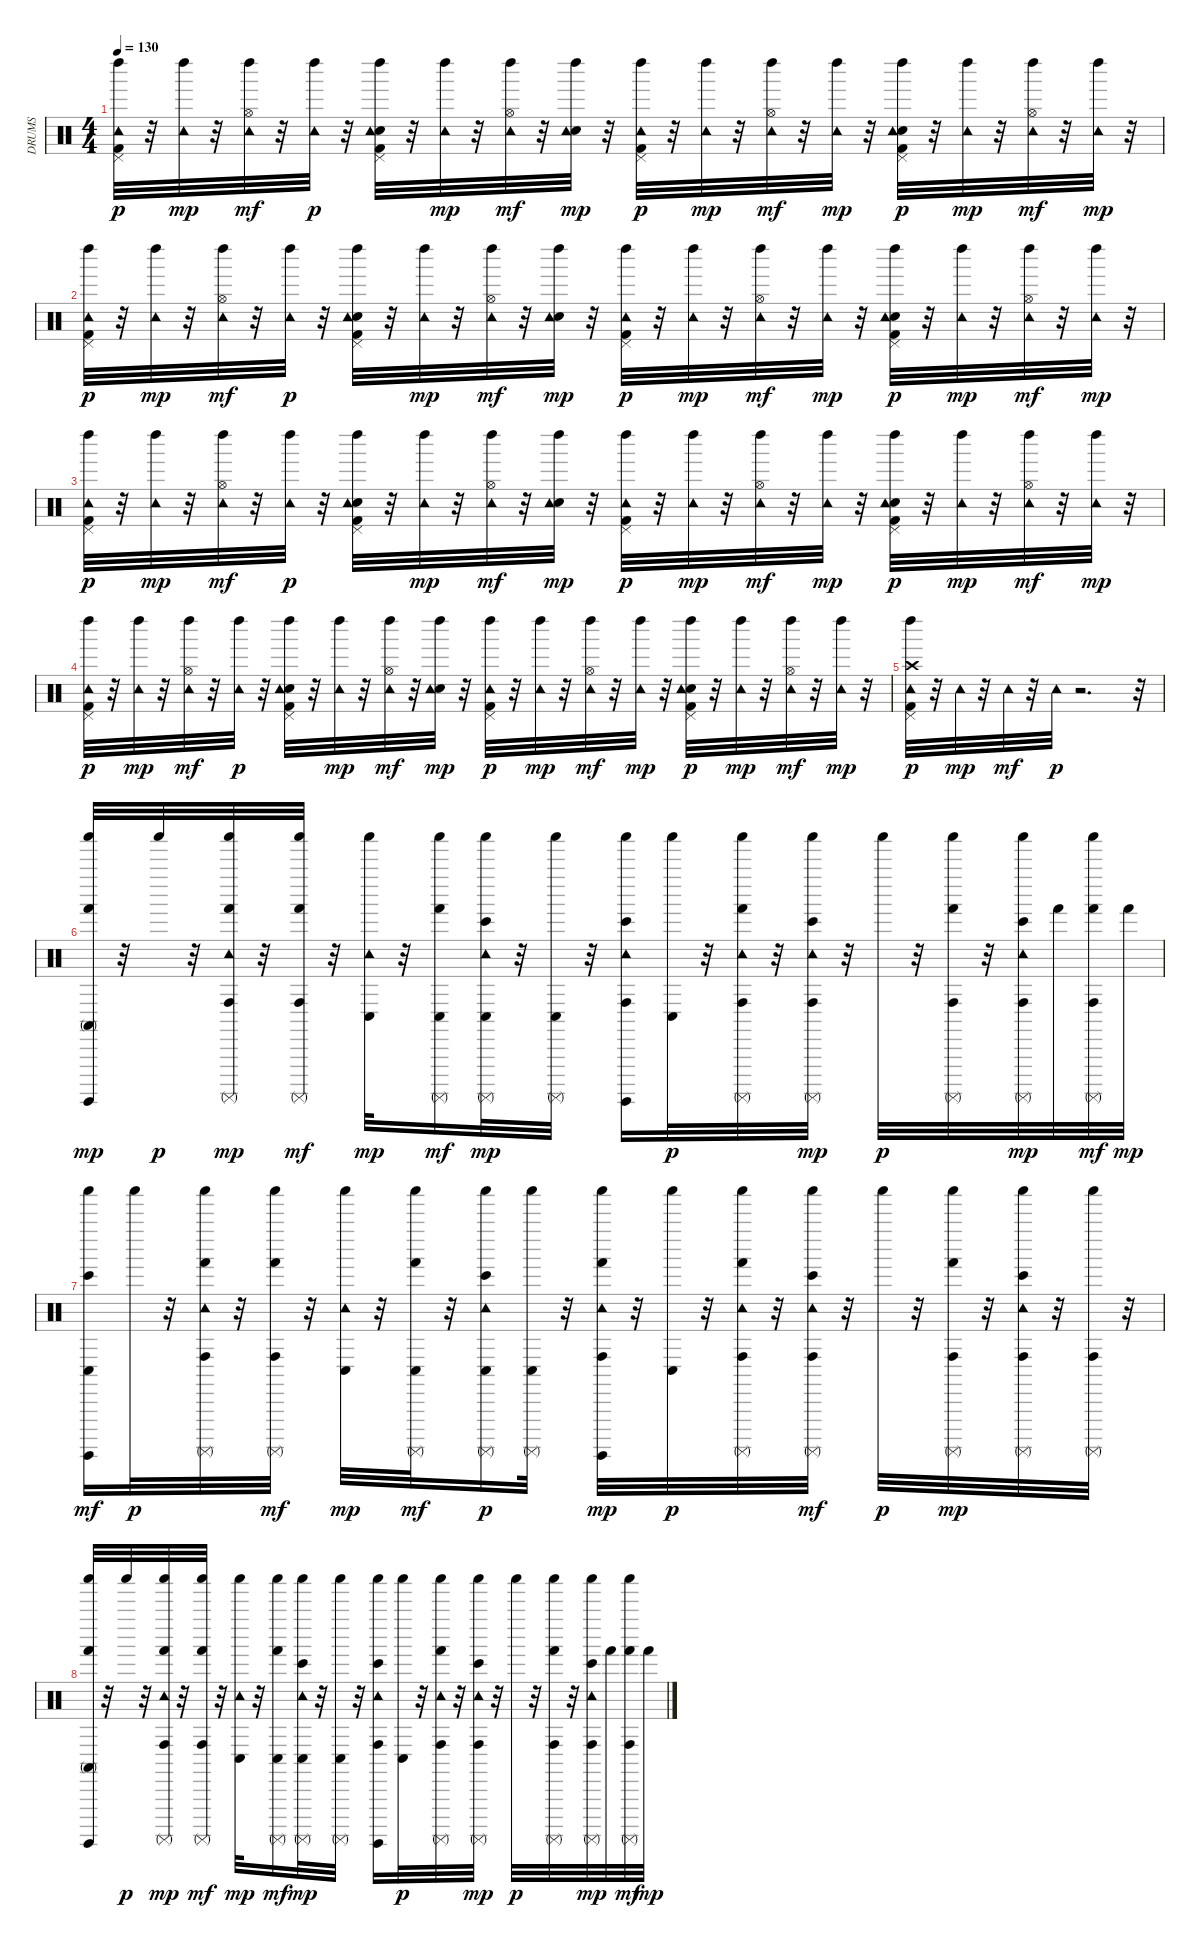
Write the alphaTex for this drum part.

\track ("DRUMS" "DRUMS") {instrument percussion}
\staff {score}
\articulation defaults
\ts (4 4)
\tempo 130
\clef neutral
\ks c
("Kick (hit) 2" "Pedal Hi-Hat (hit)" "Left Maraca (hit)" "Tambourine (hit)").32{dy p} r.32 ("Left Maraca (hit)" "Tambourine (hit)").32{dy mp} r.32 ("Hi-Hat (open)" "Left Maraca (hit)" "Tambourine (hit)").32{dy mf} r.32 ("Left Maraca (hit)" "Tambourine (hit)").32{dy p} r.32 ("Kick (hit) 2" "Electric Snare (hit)" "Pedal Hi-Hat (hit)" "Left Maraca (hit)" "Tambourine (hit)").32 r.32 ("Left Maraca (hit)" "Tambourine (hit)").32{dy mp} r.32 ("Hi-Hat (open)" "Left Maraca (hit)" "Tambourine (hit)").32{dy mf} r.32 ("Electric Snare (hit)" "Left Maraca (hit)" "Tambourine (hit)").32{dy mp} r.32 ("Kick (hit) 2" "Pedal Hi-Hat (hit)" "Left Maraca (hit)" "Tambourine (hit)").32{dy p} r.32 ("Left Maraca (hit)" "Tambourine (hit)").32{dy mp} r.32 ("Hi-Hat (open)" "Left Maraca (hit)" "Tambourine (hit)").32{dy mf} r.32 ("Left Maraca (hit)" "Tambourine (hit)").32{dy mp} r.32 ("Kick (hit) 2" "Electric Snare (hit)" "Pedal Hi-Hat (hit)" "Left Maraca (hit)" "Tambourine (hit)").32{dy p} r.32 ("Left Maraca (hit)" "Tambourine (hit)").32{dy mp} r.32 ("Hi-Hat (open)" "Left Maraca (hit)" "Tambourine (hit)").32{dy mf} r.32 ("Left Maraca (hit)" "Tambourine (hit)").32{dy mp} r.32 |
("Kick (hit) 2" "Pedal Hi-Hat (hit)" "Left Maraca (hit)" "Tambourine (hit)").32{dy p} r.32 ("Left Maraca (hit)" "Tambourine (hit)").32{dy mp} r.32 ("Hi-Hat (open)" "Left Maraca (hit)" "Tambourine (hit)").32{dy mf} r.32 ("Left Maraca (hit)" "Tambourine (hit)").32{dy p} r.32 ("Kick (hit) 2" "Electric Snare (hit)" "Pedal Hi-Hat (hit)" "Left Maraca (hit)" "Tambourine (hit)").32 r.32 ("Left Maraca (hit)" "Tambourine (hit)").32{dy mp} r.32 ("Hi-Hat (open)" "Left Maraca (hit)" "Tambourine (hit)").32{dy mf} r.32 ("Electric Snare (hit)" "Left Maraca (hit)" "Tambourine (hit)").32{dy mp} r.32 ("Kick (hit) 2" "Pedal Hi-Hat (hit)" "Left Maraca (hit)" "Tambourine (hit)").32{dy p} r.32 ("Left Maraca (hit)" "Tambourine (hit)").32{dy mp} r.32 ("Hi-Hat (open)" "Left Maraca (hit)" "Tambourine (hit)").32{dy mf} r.32 ("Left Maraca (hit)" "Tambourine (hit)").32{dy mp} r.32 ("Kick (hit) 2" "Electric Snare (hit)" "Pedal Hi-Hat (hit)" "Left Maraca (hit)" "Tambourine (hit)").32{dy p} r.32 ("Left Maraca (hit)" "Tambourine (hit)").32{dy mp} r.32 ("Hi-Hat (open)" "Left Maraca (hit)" "Tambourine (hit)").32{dy mf} r.32 ("Left Maraca (hit)" "Tambourine (hit)").32{dy mp} r.32 |
("Kick (hit) 2" "Pedal Hi-Hat (hit)" "Left Maraca (hit)" "Tambourine (hit)").32{dy p} r.32 ("Left Maraca (hit)" "Tambourine (hit)").32{dy mp} r.32 ("Hi-Hat (open)" "Left Maraca (hit)" "Tambourine (hit)").32{dy mf} r.32 ("Left Maraca (hit)" "Tambourine (hit)").32{dy p} r.32 ("Kick (hit) 2" "Electric Snare (hit)" "Pedal Hi-Hat (hit)" "Left Maraca (hit)" "Tambourine (hit)").32 r.32 ("Left Maraca (hit)" "Tambourine (hit)").32{dy mp} r.32 ("Hi-Hat (open)" "Left Maraca (hit)" "Tambourine (hit)").32{dy mf} r.32 ("Electric Snare (hit)" "Left Maraca (hit)" "Tambourine (hit)").32{dy mp} r.32 ("Kick (hit) 2" "Pedal Hi-Hat (hit)" "Left Maraca (hit)" "Tambourine (hit)").32{dy p} r.32 ("Left Maraca (hit)" "Tambourine (hit)").32{dy mp} r.32 ("Hi-Hat (open)" "Left Maraca (hit)" "Tambourine (hit)").32{dy mf} r.32 ("Left Maraca (hit)" "Tambourine (hit)").32{dy mp} r.32 ("Kick (hit) 2" "Electric Snare (hit)" "Pedal Hi-Hat (hit)" "Left Maraca (hit)" "Tambourine (hit)").32{dy p} r.32 ("Left Maraca (hit)" "Tambourine (hit)").32{dy mp} r.32 ("Hi-Hat (open)" "Left Maraca (hit)" "Tambourine (hit)").32{dy mf} r.32 ("Left Maraca (hit)" "Tambourine (hit)").32{dy mp} r.32 |
("Kick (hit) 2" "Pedal Hi-Hat (hit)" "Left Maraca (hit)" "Tambourine (hit)").32{dy p} r.32 ("Left Maraca (hit)" "Tambourine (hit)").32{dy mp} r.32 ("Hi-Hat (open)" "Left Maraca (hit)" "Tambourine (hit)").32{dy mf} r.32 ("Left Maraca (hit)" "Tambourine (hit)").32{dy p} r.32 ("Kick (hit) 2" "Electric Snare (hit)" "Pedal Hi-Hat (hit)" "Left Maraca (hit)" "Tambourine (hit)").32 r.32 ("Left Maraca (hit)" "Tambourine (hit)").32{dy mp} r.32 ("Hi-Hat (open)" "Left Maraca (hit)" "Tambourine (hit)").32{dy mf} r.32 ("Electric Snare (hit)" "Left Maraca (hit)" "Tambourine (hit)").32{dy mp} r.32 ("Kick (hit) 2" "Pedal Hi-Hat (hit)" "Left Maraca (hit)" "Tambourine (hit)").32{dy p} r.32 ("Left Maraca (hit)" "Tambourine (hit)").32{dy mp} r.32 ("Hi-Hat (open)" "Left Maraca (hit)" "Tambourine (hit)").32{dy mf} r.32 ("Left Maraca (hit)" "Tambourine (hit)").32{dy mp} r.32 ("Kick (hit) 2" "Electric Snare (hit)" "Pedal Hi-Hat (hit)" "Left Maraca (hit)" "Tambourine (hit)").32{dy p} r.32 ("Left Maraca (hit)" "Tambourine (hit)").32{dy mp} r.32 ("Hi-Hat (open)" "Left Maraca (hit)" "Tambourine (hit)").32{dy mf} r.32 ("Left Maraca (hit)" "Tambourine (hit)").32{dy mp} r.32 |
("Kick (hit) 2" "Pedal Hi-Hat (hit)" "Left Maraca (hit)" "Crash high (hit)" "Tambourine (hit)").32{dy p} r.32 "Tambourine (hit)".32{dy mp} r.32 "Tambourine (hit)".32{dy mf} r.32 "Tambourine (hit)".32{dy p} r.2{d} r.32 |
("Shaker (hit)" "Conga high (mute)" "Hand (hit)" "Surdo (hit)").32{dy mp} r.32 "Shaker (hit)".32{dy p} r.32 ("Tambourine (hit)" "Shaker (hit)" "Hand (hit)" "Surdo (mute)" "Conga high (hit)").32{dy mp} r.32 ("Shaker (hit)" "Hand (hit)" "Surdo (mute)" "Conga high (hit)").32{dy mf} r.32 ("Tambourine (hit)" "Shaker (hit)" "Conga low (hit)").32{dy mp} r.32 ("Shaker (hit)" "Hand (hit)" "Surdo (mute)" "Conga low (hit)").16{dy mf} ("Tambourine (hit)" "Shaker (hit)" "Surdo (mute)" "Bongo High (hit)" "Conga low (hit)").32{dy mp} r.32 ("Shaker (hit)" "Conga low (hit)" "Surdo (mute)").32 r.32 ("Tambourine (hit)" "Shaker (hit)" "Conga high (hit)" "Surdo (hit)" "Bongo High (hit)").16 ("Shaker (hit)" "Conga low (hit)").32{dy p} r.32 ("Conga high (hit)" "Tambourine (hit)" "Shaker (hit)" "Hand (hit)" "Surdo (mute)").32 r.32 ("Conga high (hit)" "Tambourine (hit)" "Shaker (hit)" "Surdo (mute)" "Bongo High (hit)").32{dy mp} r.32 "Shaker (hit)".32{dy p} r.32 ("Shaker (hit)" "Surdo (mute)" "Hand (hit)" "Conga high (hit)").32 r.32 ("Tambourine (hit)" "Shaker (hit)" "Surdo (mute)" "Bongo High (hit)" "Conga high (hit)").32{dy mp} "Hand (hit)".32 ("Shaker (hit)" "Hand (hit)" "Surdo (mute)" "Conga high (hit)").32{dy mf} "Hand (hit)".32{dy mp} |
("Shaker (hit)" "Conga low (hit)" "Surdo (hit)" "Bongo High (hit)").16{dy mf} "Shaker (hit)".32{dy p} r.32 ("Tambourine (hit)" "Shaker (hit)" "Conga high (hit)" "Hand (hit)" "Surdo (mute)").32 r.32 ("Conga high (hit)" "Hand (hit)" "Shaker (hit)" "Surdo (mute)").32{dy mf} r.32 ("Tambourine (hit)" "Shaker (hit)" "Conga low (hit)").32{dy mp} r.32 ("Shaker (hit)" "Hand (hit)" "Surdo (mute)" "Conga low (hit)").32{dy mf} r.32 ("Tambourine (hit)" "Shaker (hit)" "Surdo (mute)" "Conga low (hit)" "Bongo High (hit)").16{dy p} ("Shaker (hit)" "Surdo (mute)" "Conga low (hit)").32 r.32 ("Tambourine (hit)" "Shaker (hit)" "Surdo (hit)" "Conga high (hit)" "Hand (hit)").32{dy mp} r.32 ("Shaker (hit)" "Conga low (hit)").32{dy p} r.32 ("Tambourine (hit)" "Shaker (hit)" "Conga high (hit)" "Hand (hit)" "Surdo (mute)").32 r.32 ("Conga high (hit)" "Bongo High (hit)" "Tambourine (hit)" "Shaker (hit)" "Surdo (mute)").32{dy mf} r.32 "Shaker (hit)".32{dy p} r.32 ("Hand (hit)" "Shaker (hit)" "Surdo (mute)" "Conga high (hit)").32{dy mp} r.32 ("Tambourine (hit)" "Shaker (hit)" "Surdo (mute)" "Conga high (hit)" "Bongo High (hit)").32 r.32 ("Shaker (hit)" "Conga high (hit)" "Surdo (mute)").32 r.32 |
("Shaker (hit)" "Conga high (mute)" "Hand (hit)" "Surdo (hit)").32 r.32 "Shaker (hit)".32{dy p} r.32 ("Tambourine (hit)" "Shaker (hit)" "Hand (hit)" "Surdo (mute)" "Conga high (hit)").32{dy mp} r.32 ("Shaker (hit)" "Hand (hit)" "Surdo (mute)" "Conga high (hit)").32{dy mf} r.32 ("Tambourine (hit)" "Shaker (hit)" "Conga low (hit)").32{dy mp} r.32 ("Shaker (hit)" "Hand (hit)" "Surdo (mute)" "Conga low (hit)").16{dy mf} ("Tambourine (hit)" "Shaker (hit)" "Surdo (mute)" "Bongo High (hit)" "Conga low (hit)").32{dy mp} r.32 ("Shaker (hit)" "Conga low (hit)" "Surdo (mute)").32 r.32 ("Tambourine (hit)" "Shaker (hit)" "Conga high (hit)" "Surdo (hit)" "Bongo High (hit)").16 ("Shaker (hit)" "Conga low (hit)").32{dy p} r.32 ("Conga high (hit)" "Tambourine (hit)" "Shaker (hit)" "Hand (hit)" "Surdo (mute)").32 r.32 ("Conga high (hit)" "Tambourine (hit)" "Shaker (hit)" "Surdo (mute)" "Bongo High (hit)").32{dy mp} r.32 "Shaker (hit)".32{dy p} r.32 ("Shaker (hit)" "Surdo (mute)" "Hand (hit)" "Conga high (hit)").32 r.32 ("Tambourine (hit)" "Shaker (hit)" "Surdo (mute)" "Bongo High (hit)" "Conga high (hit)").32{dy mp} "Hand (hit)".32 ("Shaker (hit)" "Hand (hit)" "Surdo (mute)" "Conga high (hit)").32{dy mf} "Hand (hit)".32{dy mp}
